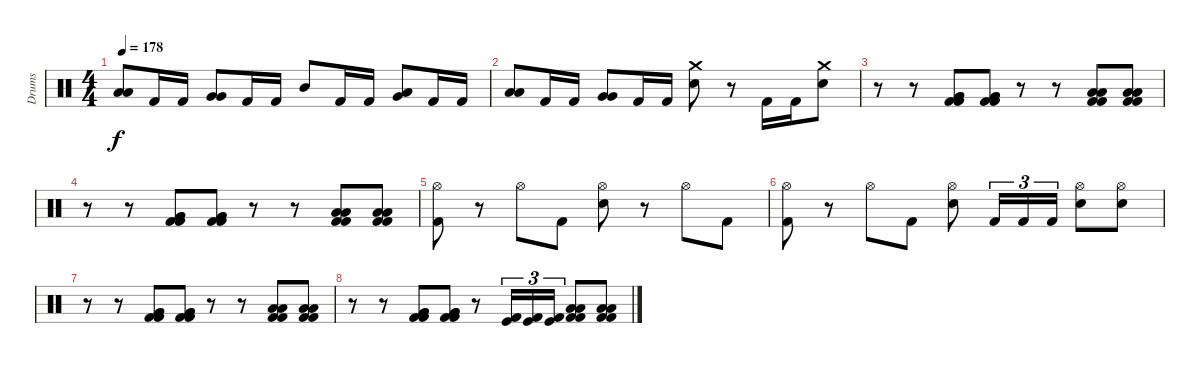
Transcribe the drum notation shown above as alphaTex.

\track ("Drums" "Drums") {instrument percussion}
\staff {score}
\articulation defaults
\ts (4 4)
\tempo 178
\clef neutral
\ks c
("Low Tom (hit)" "Low Tom (hit)").8{dy f} "Kick (hit) 2".16 "Kick (hit) 2".16 ("Very Low Tom (hit)" "Very Low Tom (hit)").8 "Kick (hit) 2".16 "Kick (hit) 2".16 "Mid Tom (hit)".8 "Kick (hit) 2".16 "Kick (hit) 2".16 ("Very Low Tom (hit)" "Low Tom (hit)").8 "Kick (hit) 2".16 "Kick (hit) 2".16 |
("Low Tom (hit)" "Low Tom (hit)").8 "Kick (hit) 2".16 "Kick (hit) 2".16 ("Very Low Tom (hit)" "Very Low Tom (hit)").8 "Kick (hit) 2".16 "Kick (hit) 2".16 ("Crash medium (hit)" "Electric Snare (hit)").8 r.8 "Kick (hit) 2".16 "Kick (hit) 2".16 ("Crash medium (hit)" "Electric Snare (hit)").8 |
r.8 r.8 ("Very Low Tom (hit)" "Very Low Tom (hit)" "Kick (hit) 2" "Kick (hit) 2").8 ("Very Low Tom (hit)" "Very Low Tom (hit)" "Kick (hit) 2" "Kick (hit) 2").8 r.8 r.8 ("Low Tom (hit)" "Low Tom (hit)" "Kick (hit) 2" "Kick (hit) 2").8 ("Low Tom (hit)" "Low Tom (hit)" "Kick (hit) 2" "Kick (hit) 2").8 |
r.8 r.8 ("Very Low Tom (hit)" "Very Low Tom (hit)" "Kick (hit) 2" "Kick (hit) 2").8 ("Very Low Tom (hit)" "Very Low Tom (hit)" "Kick (hit) 2" "Kick (hit) 2").8 r.8 r.8 ("Low Tom (hit)" "Low Tom (hit)" "Kick (hit) 2" "Kick (hit) 2").8 ("Low Tom (hit)" "Low Tom (hit)" "Kick (hit) 2" "Kick (hit) 2").8 |
("Hi-Hat (open)" "Kick (hit) 2").8 r.8 "Hi-Hat (open)".8 "Kick (hit) 2".8 ("Hi-Hat (open)" "Electric Snare (hit)").8 r.8 "Hi-Hat (open)".8 "Kick (hit) 2".8 |
("Hi-Hat (open)" "Kick (hit) 2").8 r.8 "Hi-Hat (open)".8 "Kick (hit) 2".8 ("Hi-Hat (open)" "Electric Snare (hit)").8 "Kick (hit) 2".16{tu (3 2)} "Kick (hit) 2".16{tu (3 2)} "Kick (hit) 2".16{tu (3 2)} ("Hi-Hat (open)" "Electric Snare (hit)").8 ("Hi-Hat (open)" "Electric Snare (hit)").8 |
r.8 r.8 ("Very Low Tom (hit)" "Very Low Tom (hit)" "Kick (hit) 2" "Kick (hit) 2").8 ("Very Low Tom (hit)" "Very Low Tom (hit)" "Kick (hit) 2" "Kick (hit) 2").8 r.8 r.8 ("Low Tom (hit)" "Low Tom (hit)" "Kick (hit) 2" "Kick (hit) 2").8 ("Low Tom (hit)" "Low Tom (hit)" "Kick (hit) 2" "Kick (hit) 2").8 |
r.8 r.8 ("Very Low Tom (hit)" "Very Low Tom (hit)" "Kick (hit) 2" "Kick (hit) 2").8 ("Very Low Tom (hit)" "Very Low Tom (hit)" "Kick (hit) 2" "Kick (hit) 2").8 r.8 ("Kick (hit)" "Kick (hit) 2").16{tu (3 2)} ("Kick (hit)" "Kick (hit) 2").16{tu (3 2)} ("Kick (hit)" "Kick (hit) 2").16{tu (3 2)} ("Low Tom (hit)" "Low Tom (hit)" "Kick (hit) 2" "Kick (hit) 2").8 ("Low Tom (hit)" "Low Tom (hit)" "Kick (hit) 2" "Kick (hit) 2").8
